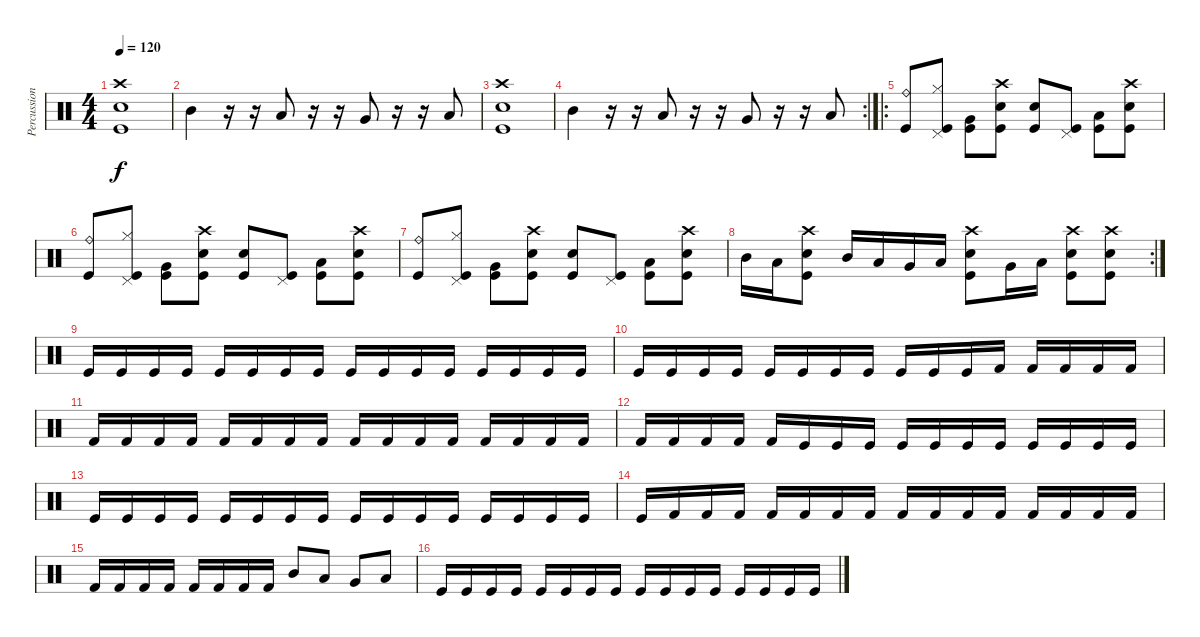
\track ("Percussion" "Percussion") {instrument percussion}
\staff {score}
\articulation defaults
\ts (4 4)
\tempo 120
\clef neutral
\ks c
("Crash high (hit)" "Snare (hit) 2" "Kick (hit)").1{dy f} |
"Mid Tom (hit)".4 r.16 r.16 "Low Tom (hit)".8 r.16 r.16 "Very Low Tom (hit)".8 r.16 r.16 "Low Floor Tom (hit)".8 |
("Crash high (hit)" "Snare (hit) 2" "Kick (hit)").1 |
\rc 2 "Mid Tom (hit)".4
r.16 r.16 "Low Tom (hit)".8 r.16 r.16 "Very Low Tom (hit)".8 r.16 r.16 "Low Floor Tom (hit)".8 |
\ro
("Kick (hit)" "Ride (bell)").8 ("Kick (hit)" "Hi-Hat (closed)" "Pedal Hi-Hat (hit)").8 ("Kick (hit)" "Very Low Tom (hit)").8 ("Kick (hit)" "Snare (hit) 2" "Crash high (hit)").8 ("Kick (hit)" "Snare (hit) 2").8 ("Kick (hit)" "Pedal Hi-Hat (hit)").8 ("Kick (hit)" "Low Floor Tom (hit)").8 ("Kick (hit)" "Snare (hit) 2" "Crash high (hit)").8 |
("Kick (hit)" "Ride (bell)").8 ("Kick (hit)" "Hi-Hat (closed)" "Pedal Hi-Hat (hit)").8 ("Kick (hit)" "Very Low Tom (hit)").8 ("Kick (hit)" "Snare (hit) 2" "Crash high (hit)").8 ("Kick (hit)" "Snare (hit) 2").8 ("Kick (hit)" "Pedal Hi-Hat (hit)").8 ("Kick (hit)" "Low Floor Tom (hit)").8 ("Kick (hit)" "Snare (hit) 2" "Crash high (hit)").8 |
("Kick (hit)" "Ride (bell)").8 ("Kick (hit)" "Hi-Hat (closed)" "Pedal Hi-Hat (hit)").8 ("Kick (hit)" "Very Low Tom (hit)").8 ("Kick (hit)" "Snare (hit) 2" "Crash high (hit)").8 ("Kick (hit)" "Snare (hit) 2").8 ("Kick (hit)" "Pedal Hi-Hat (hit)").8 ("Kick (hit)" "Low Floor Tom (hit)").8 ("Kick (hit)" "Snare (hit) 2" "Crash high (hit)").8 |
\rc 2 "Mid Tom (hit)".16 "Low Tom (hit)".16
("Crash high (hit)" "Snare (hit) 2" "Kick (hit)").8 "Mid Tom (hit)".16 "Low Tom (hit)".16 "Very Low Tom (hit)".16 "Low Floor Tom (hit)".16 ("Crash high (hit)" "Snare (hit) 2" "Kick (hit)").8 "Very Low Tom (hit)".16 "Low Floor Tom (hit)".16 ("Crash high (hit)" "Snare (hit) 2" "Kick (hit)").8 ("Crash high (hit)" "Snare (hit) 2" "Kick (hit)").8 |
"Kick (hit)".16 "Kick (hit)".16 "Kick (hit)".16 "Kick (hit)".16 "Kick (hit)".16 "Kick (hit)".16 "Kick (hit)".16 "Kick (hit)".16 "Kick (hit)".16 "Kick (hit)".16 "Kick (hit)".16 "Kick (hit)".16 "Kick (hit)".16 "Kick (hit)".16 "Kick (hit)".16 "Kick (hit)".16 |
"Kick (hit)".16 "Kick (hit)".16 "Kick (hit)".16 "Kick (hit)".16 "Kick (hit)".16 "Kick (hit)".16 "Kick (hit)".16 "Kick (hit)".16 "Kick (hit)".16 "Kick (hit)".16 "Kick (hit)".16 "Kick (hit) 2".16 "Kick (hit) 2".16 "Kick (hit) 2".16 "Kick (hit) 2".16 "Kick (hit) 2".16 |
"Kick (hit) 2".16 "Kick (hit) 2".16 "Kick (hit) 2".16 "Kick (hit) 2".16 "Kick (hit) 2".16 "Kick (hit) 2".16 "Kick (hit) 2".16 "Kick (hit) 2".16 "Kick (hit) 2".16 "Kick (hit) 2".16 "Kick (hit) 2".16 "Kick (hit) 2".16 "Kick (hit) 2".16 "Kick (hit) 2".16 "Kick (hit) 2".16 "Kick (hit) 2".16 |
"Kick (hit) 2".16 "Kick (hit) 2".16 "Kick (hit) 2".16 "Kick (hit) 2".16 "Kick (hit) 2".16 "Kick (hit)".16 "Kick (hit)".16 "Kick (hit)".16 "Kick (hit)".16 "Kick (hit)".16 "Kick (hit)".16 "Kick (hit)".16 "Kick (hit)".16 "Kick (hit)".16 "Kick (hit)".16 "Kick (hit)".16 |
"Kick (hit)".16 "Kick (hit)".16 "Kick (hit)".16 "Kick (hit)".16 "Kick (hit)".16 "Kick (hit)".16 "Kick (hit)".16 "Kick (hit)".16 "Kick (hit)".16 "Kick (hit)".16 "Kick (hit)".16 "Kick (hit)".16 "Kick (hit)".16 "Kick (hit)".16 "Kick (hit)".16 "Kick (hit)".16 |
"Kick (hit)".16 "Kick (hit) 2".16 "Kick (hit) 2".16 "Kick (hit) 2".16 "Kick (hit) 2".16 "Kick (hit) 2".16 "Kick (hit) 2".16 "Kick (hit) 2".16 "Kick (hit) 2".16 "Kick (hit) 2".16 "Kick (hit) 2".16 "Kick (hit) 2".16 "Kick (hit) 2".16 "Kick (hit) 2".16 "Kick (hit) 2".16 "Kick (hit) 2".16 |
"Kick (hit) 2".16 "Kick (hit) 2".16 "Kick (hit) 2".16 "Kick (hit) 2".16 "Kick (hit) 2".16 "Kick (hit) 2".16 "Kick (hit) 2".16 "Kick (hit) 2".16 "Mid Tom (hit)".8 "Low Tom (hit)".8 "Very Low Tom (hit)".8 "Low Floor Tom (hit)".8 |
"Kick (hit)".16 "Kick (hit)".16 "Kick (hit)".16 "Kick (hit)".16 "Kick (hit)".16 "Kick (hit)".16 "Kick (hit)".16 "Kick (hit)".16 "Kick (hit)".16 "Kick (hit)".16 "Kick (hit)".16 "Kick (hit)".16 "Kick (hit)".16 "Kick (hit)".16 "Kick (hit)".16 "Kick (hit)".16
